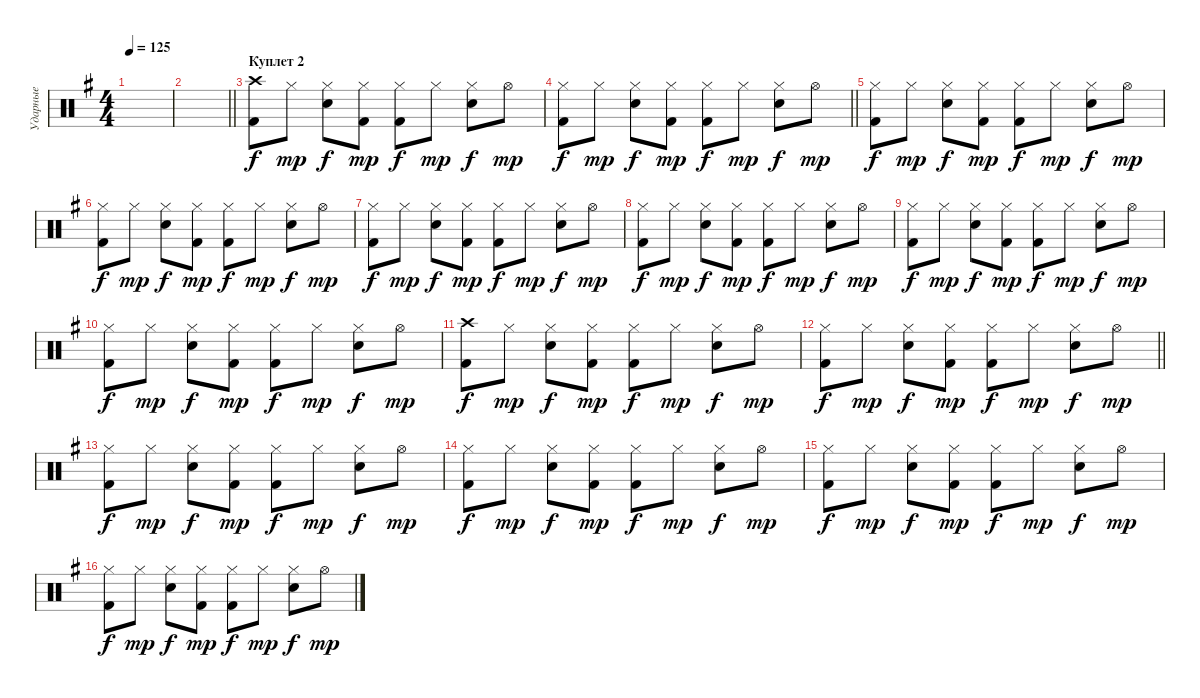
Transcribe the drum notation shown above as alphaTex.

\track ("Ударные" "Ударные") {instrument percussion}
\staff {score}
\articulation defaults
\ts (4 4)
\tempo 125
\clef neutral
\ks eminor
|
\barLineRight lightlight
|
\section ("" "Куплет 2")
("Crash high (hit)" "Kick (hit) 2").8 "Hi-Hat (closed)".8{dy mp} ("Hi-Hat (closed)" "Snare (hit) 2").8{dy f} ("Hi-Hat (closed)" "Kick (hit) 2").8{dy mp} ("Hi-Hat (closed)" "Kick (hit) 2").8{dy f} "Hi-Hat (closed)".8{dy mp} ("Hi-Hat (closed)" "Snare (hit) 2").8{dy f} "Hi-Hat (open)".8{dy mp} |
\barLineRight lightlight
("Hi-Hat (closed)" "Kick (hit) 2").8{dy f} "Hi-Hat (closed)".8{dy mp} ("Hi-Hat (closed)" "Snare (hit) 2").8{dy f} ("Hi-Hat (closed)" "Kick (hit) 2").8{dy mp} ("Hi-Hat (closed)" "Kick (hit) 2").8{dy f} "Hi-Hat (closed)".8{dy mp} ("Hi-Hat (closed)" "Snare (hit) 2").8{dy f} "Hi-Hat (open)".8{dy mp} |
("Hi-Hat (closed)" "Kick (hit) 2").8{dy f} "Hi-Hat (closed)".8{dy mp} ("Hi-Hat (closed)" "Snare (hit) 2").8{dy f} ("Hi-Hat (closed)" "Kick (hit) 2").8{dy mp} ("Hi-Hat (closed)" "Kick (hit) 2").8{dy f} "Hi-Hat (closed)".8{dy mp} ("Hi-Hat (closed)" "Snare (hit) 2").8{dy f} "Hi-Hat (open)".8{dy mp} |
("Hi-Hat (closed)" "Kick (hit) 2").8{dy f} "Hi-Hat (closed)".8{dy mp} ("Hi-Hat (closed)" "Snare (hit) 2").8{dy f} ("Hi-Hat (closed)" "Kick (hit) 2").8{dy mp} ("Hi-Hat (closed)" "Kick (hit) 2").8{dy f} "Hi-Hat (closed)".8{dy mp} ("Hi-Hat (closed)" "Snare (hit) 2").8{dy f} "Hi-Hat (open)".8{dy mp} |
("Hi-Hat (closed)" "Kick (hit) 2").8{dy f} "Hi-Hat (closed)".8{dy mp} ("Hi-Hat (closed)" "Snare (hit) 2").8{dy f} ("Hi-Hat (closed)" "Kick (hit) 2").8{dy mp} ("Hi-Hat (closed)" "Kick (hit) 2").8{dy f} "Hi-Hat (closed)".8{dy mp} ("Hi-Hat (closed)" "Snare (hit) 2").8{dy f} "Hi-Hat (open)".8{dy mp} |
("Hi-Hat (closed)" "Kick (hit) 2").8{dy f} "Hi-Hat (closed)".8{dy mp} ("Hi-Hat (closed)" "Snare (hit) 2").8{dy f} ("Hi-Hat (closed)" "Kick (hit) 2").8{dy mp} ("Hi-Hat (closed)" "Kick (hit) 2").8{dy f} "Hi-Hat (closed)".8{dy mp} ("Hi-Hat (closed)" "Snare (hit) 2").8{dy f} "Hi-Hat (open)".8{dy mp} |
("Hi-Hat (closed)" "Kick (hit) 2").8{dy f} "Hi-Hat (closed)".8{dy mp} ("Hi-Hat (closed)" "Snare (hit) 2").8{dy f} ("Hi-Hat (closed)" "Kick (hit) 2").8{dy mp} ("Hi-Hat (closed)" "Kick (hit) 2").8{dy f} "Hi-Hat (closed)".8{dy mp} ("Hi-Hat (closed)" "Snare (hit) 2").8{dy f} "Hi-Hat (open)".8{dy mp} |
("Hi-Hat (closed)" "Kick (hit) 2").8{dy f} "Hi-Hat (closed)".8{dy mp} ("Hi-Hat (closed)" "Snare (hit) 2").8{dy f} ("Hi-Hat (closed)" "Kick (hit) 2").8{dy mp} ("Hi-Hat (closed)" "Kick (hit) 2").8{dy f} "Hi-Hat (closed)".8{dy mp} ("Hi-Hat (closed)" "Snare (hit) 2").8{dy f} "Hi-Hat (open)".8{dy mp} |
("Crash high (hit)" "Kick (hit) 2").8{dy f} "Hi-Hat (closed)".8{dy mp} ("Hi-Hat (closed)" "Snare (hit) 2").8{dy f} ("Hi-Hat (closed)" "Kick (hit) 2").8{dy mp} ("Hi-Hat (closed)" "Kick (hit) 2").8{dy f} "Hi-Hat (closed)".8{dy mp} ("Hi-Hat (closed)" "Snare (hit) 2").8{dy f} "Hi-Hat (open)".8{dy mp} |
\barLineRight lightlight
("Hi-Hat (closed)" "Kick (hit) 2").8{dy f} "Hi-Hat (closed)".8{dy mp} ("Hi-Hat (closed)" "Snare (hit) 2").8{dy f} ("Hi-Hat (closed)" "Kick (hit) 2").8{dy mp} ("Hi-Hat (closed)" "Kick (hit) 2").8{dy f} "Hi-Hat (closed)".8{dy mp} ("Hi-Hat (closed)" "Snare (hit) 2").8{dy f} "Hi-Hat (open)".8{dy mp} |
("Hi-Hat (closed)" "Kick (hit) 2").8{dy f} "Hi-Hat (closed)".8{dy mp} ("Hi-Hat (closed)" "Snare (hit) 2").8{dy f} ("Hi-Hat (closed)" "Kick (hit) 2").8{dy mp} ("Hi-Hat (closed)" "Kick (hit) 2").8{dy f} "Hi-Hat (closed)".8{dy mp} ("Hi-Hat (closed)" "Snare (hit) 2").8{dy f} "Hi-Hat (open)".8{dy mp} |
("Hi-Hat (closed)" "Kick (hit) 2").8{dy f} "Hi-Hat (closed)".8{dy mp} ("Hi-Hat (closed)" "Snare (hit) 2").8{dy f} ("Hi-Hat (closed)" "Kick (hit) 2").8{dy mp} ("Hi-Hat (closed)" "Kick (hit) 2").8{dy f} "Hi-Hat (closed)".8{dy mp} ("Hi-Hat (closed)" "Snare (hit) 2").8{dy f} "Hi-Hat (open)".8{dy mp} |
("Hi-Hat (closed)" "Kick (hit) 2").8{dy f} "Hi-Hat (closed)".8{dy mp} ("Hi-Hat (closed)" "Snare (hit) 2").8{dy f} ("Hi-Hat (closed)" "Kick (hit) 2").8{dy mp} ("Hi-Hat (closed)" "Kick (hit) 2").8{dy f} "Hi-Hat (closed)".8{dy mp} ("Hi-Hat (closed)" "Snare (hit) 2").8{dy f} "Hi-Hat (open)".8{dy mp} |
("Hi-Hat (closed)" "Kick (hit) 2").8{dy f} "Hi-Hat (closed)".8{dy mp} ("Hi-Hat (closed)" "Snare (hit) 2").8{dy f} ("Hi-Hat (closed)" "Kick (hit) 2").8{dy mp} ("Hi-Hat (closed)" "Kick (hit) 2").8{dy f} "Hi-Hat (closed)".8{dy mp} ("Hi-Hat (closed)" "Snare (hit) 2").8{dy f} "Hi-Hat (open)".8{dy mp}
